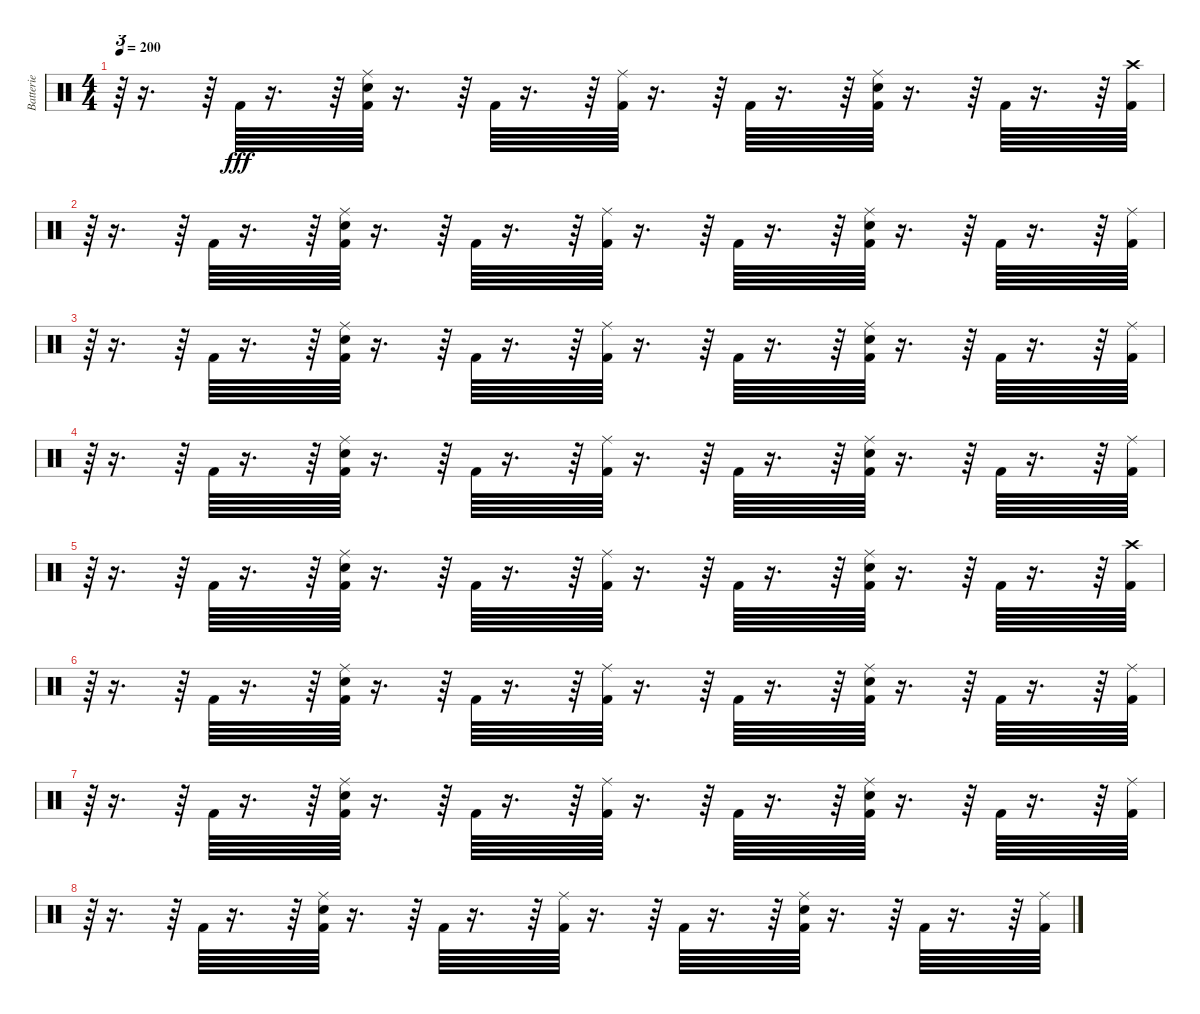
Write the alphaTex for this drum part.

\track ("Batterie" "Batterie") {instrument percussion}
\staff {score}
\articulation defaults
\ts (4 4)
\tempo 200
\clef neutral
\ks c
r.64{tu (3 2) dy fff} r.16{d} r.64 "Kick (hit) 2".64 r.16{d} r.64 ("Kick (hit) 2" "Snare (hit) 2" "Ride (middle)").64 r.16{d} r.64 "Kick (hit) 2".64 r.16{d} r.64 ("Kick (hit) 2" "Ride (middle)").64 r.16{d} r.64 "Kick (hit) 2".64 r.16{d} r.64 ("Kick (hit) 2" "Snare (hit) 2" "Ride (middle)").64 r.16{d} r.64 "Kick (hit) 2".64 r.16{d} r.64 ("Kick (hit) 2" "Crash high (hit)").64 |
r.64{tu (3 2)} r.16{d} r.64 "Kick (hit) 2".64 r.16{d} r.64 ("Kick (hit) 2" "Snare (hit) 2" "Ride (middle)").64 r.16{d} r.64 "Kick (hit) 2".64 r.16{d} r.64 ("Kick (hit) 2" "Ride (middle)").64 r.16{d} r.64 "Kick (hit) 2".64 r.16{d} r.64 ("Kick (hit) 2" "Snare (hit) 2" "Ride (middle)").64 r.16{d} r.64 "Kick (hit) 2".64 r.16{d} r.64 ("Kick (hit) 2" "Ride (middle)").64 |
r.64{tu (3 2)} r.16{d} r.64 "Kick (hit) 2".64 r.16{d} r.64 ("Kick (hit) 2" "Snare (hit) 2" "Ride (middle)").64 r.16{d} r.64 "Kick (hit) 2".64 r.16{d} r.64 ("Kick (hit) 2" "Ride (middle)").64 r.16{d} r.64 "Kick (hit) 2".64 r.16{d} r.64 ("Kick (hit) 2" "Snare (hit) 2" "Ride (middle)").64 r.16{d} r.64 "Kick (hit) 2".64 r.16{d} r.64 ("Kick (hit) 2" "Ride (middle)").64 |
r.64{tu (3 2)} r.16{d} r.64 "Kick (hit) 2".64 r.16{d} r.64 ("Kick (hit) 2" "Snare (hit) 2" "Ride (middle)").64 r.16{d} r.64 "Kick (hit) 2".64 r.16{d} r.64 ("Kick (hit) 2" "Ride (middle)").64 r.16{d} r.64 "Kick (hit) 2".64 r.16{d} r.64 ("Kick (hit) 2" "Snare (hit) 2" "Ride (middle)").64 r.16{d} r.64 "Kick (hit) 2".64 r.16{d} r.64 ("Kick (hit) 2" "Ride (middle)").64 |
r.64{tu (3 2)} r.16{d} r.64 "Kick (hit) 2".64 r.16{d} r.64 ("Kick (hit) 2" "Snare (hit) 2" "Ride (middle)").64 r.16{d} r.64 "Kick (hit) 2".64 r.16{d} r.64 ("Kick (hit) 2" "Ride (middle)").64 r.16{d} r.64 "Kick (hit) 2".64 r.16{d} r.64 ("Kick (hit) 2" "Snare (hit) 2" "Ride (middle)").64 r.16{d} r.64 "Kick (hit) 2".64 r.16{d} r.64 ("Kick (hit) 2" "Crash high (hit)").64 |
r.64{tu (3 2)} r.16{d} r.64 "Kick (hit) 2".64 r.16{d} r.64 ("Kick (hit) 2" "Snare (hit) 2" "Ride (middle)").64 r.16{d} r.64 "Kick (hit) 2".64 r.16{d} r.64 ("Kick (hit) 2" "Ride (middle)").64 r.16{d} r.64 "Kick (hit) 2".64 r.16{d} r.64 ("Kick (hit) 2" "Snare (hit) 2" "Ride (middle)").64 r.16{d} r.64 "Kick (hit) 2".64 r.16{d} r.64 ("Kick (hit) 2" "Ride (middle)").64 |
r.64{tu (3 2)} r.16{d} r.64 "Kick (hit) 2".64 r.16{d} r.64 ("Kick (hit) 2" "Snare (hit) 2" "Ride (middle)").64 r.16{d} r.64 "Kick (hit) 2".64 r.16{d} r.64 ("Kick (hit) 2" "Ride (middle)").64 r.16{d} r.64 "Kick (hit) 2".64 r.16{d} r.64 ("Kick (hit) 2" "Snare (hit) 2" "Ride (middle)").64 r.16{d} r.64 "Kick (hit) 2".64 r.16{d} r.64 ("Kick (hit) 2" "Ride (middle)").64 |
r.64{tu (3 2)} r.16{d} r.64 "Kick (hit) 2".64 r.16{d} r.64 ("Kick (hit) 2" "Snare (hit) 2" "Ride (middle)").64 r.16{d} r.64 "Kick (hit) 2".64 r.16{d} r.64 ("Kick (hit) 2" "Ride (middle)").64 r.16{d} r.64 "Kick (hit) 2".64 r.16{d} r.64 ("Kick (hit) 2" "Snare (hit) 2" "Ride (middle)").64 r.16{d} r.64 "Kick (hit) 2".64 r.16{d} r.64 ("Kick (hit) 2" "Ride (middle)").64
